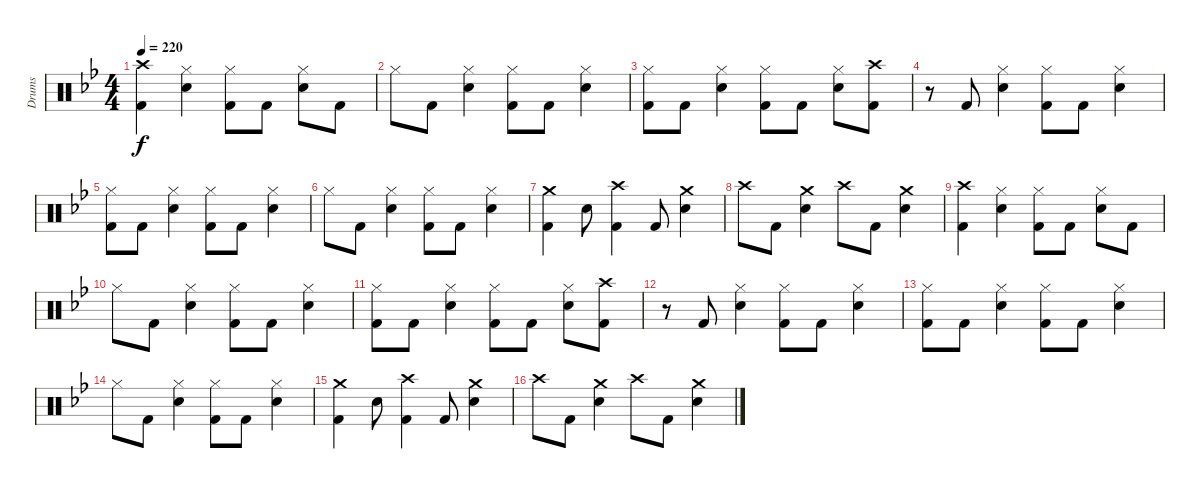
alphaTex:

\track ("Drums" "Drums") {instrument percussion}
\staff {score}
\articulation defaults
\ts (4 4)
\tempo 220
\clef neutral
\ks gminor
("Kick (hit) 2" "Crash high (hit)").4{dy f} ("Snare (hit) 2" "Hi-Hat (closed)").4 ("Kick (hit) 2" "Hi-Hat (closed)").8 "Kick (hit) 2".8 ("Snare (hit) 2" "Hi-Hat (closed)").8 "Kick (hit) 2".8 |
"Hi-Hat (closed)".8 "Kick (hit) 2".8 ("Snare (hit) 2" "Hi-Hat (closed)").4 ("Kick (hit) 2" "Hi-Hat (closed)").8 "Kick (hit) 2".8 ("Snare (hit) 2" "Hi-Hat (closed)").4 |
("Kick (hit) 2" "Hi-Hat (closed)").8 "Kick (hit) 2".8 ("Snare (hit) 2" "Hi-Hat (closed)").4 ("Kick (hit) 2" "Hi-Hat (closed)").8 "Kick (hit) 2".8 ("Snare (hit) 2" "Hi-Hat (closed)").8 ("Kick (hit) 2" "Crash high (hit)").8 |
r.8 "Kick (hit) 2".8 ("Snare (hit) 2" "Hi-Hat (closed)").4 ("Kick (hit) 2" "Hi-Hat (closed)").8 "Kick (hit) 2".8 ("Snare (hit) 2" "Hi-Hat (closed)").4 |
("Kick (hit) 2" "Hi-Hat (closed)").8 "Kick (hit) 2".8 ("Snare (hit) 2" "Hi-Hat (closed)").4 ("Kick (hit) 2" "Hi-Hat (closed)").8 "Kick (hit) 2".8 ("Snare (hit) 2" "Hi-Hat (closed)").4 |
"Hi-Hat (closed)".8 "Kick (hit) 2".8 ("Snare (hit) 2" "Hi-Hat (closed)").4 ("Kick (hit) 2" "Hi-Hat (closed)").8 "Kick (hit) 2".8 ("Snare (hit) 2" "Hi-Hat (closed)").4 |
("Kick (hit) 2" "Crash medium (hit)").4 "Snare (hit) 2".8 ("Kick (hit) 2" "Crash high (hit)").4 "Kick (hit) 2".8 ("Snare (hit) 2" "Crash medium (hit)").4 |
"Crash high (hit)".8 "Kick (hit) 2".8 ("Snare (hit) 2" "Crash medium (hit)").4 "Crash high (hit)".8 "Kick (hit) 2".8 ("Snare (hit) 2" "Crash medium (hit)").4 |
("Kick (hit) 2" "Crash high (hit)").4 ("Snare (hit) 2" "Hi-Hat (closed)").4 ("Kick (hit) 2" "Hi-Hat (closed)").8 "Kick (hit) 2".8 ("Snare (hit) 2" "Hi-Hat (closed)").8 "Kick (hit) 2".8 |
"Hi-Hat (closed)".8 "Kick (hit) 2".8 ("Snare (hit) 2" "Hi-Hat (closed)").4 ("Kick (hit) 2" "Hi-Hat (closed)").8 "Kick (hit) 2".8 ("Snare (hit) 2" "Hi-Hat (closed)").4 |
("Kick (hit) 2" "Hi-Hat (closed)").8 "Kick (hit) 2".8 ("Snare (hit) 2" "Hi-Hat (closed)").4 ("Kick (hit) 2" "Hi-Hat (closed)").8 "Kick (hit) 2".8 ("Snare (hit) 2" "Hi-Hat (closed)").8 ("Kick (hit) 2" "Crash high (hit)").8 |
r.8 "Kick (hit) 2".8 ("Snare (hit) 2" "Hi-Hat (closed)").4 ("Kick (hit) 2" "Hi-Hat (closed)").8 "Kick (hit) 2".8 ("Snare (hit) 2" "Hi-Hat (closed)").4 |
("Kick (hit) 2" "Hi-Hat (closed)").8 "Kick (hit) 2".8 ("Snare (hit) 2" "Hi-Hat (closed)").4 ("Kick (hit) 2" "Hi-Hat (closed)").8 "Kick (hit) 2".8 ("Snare (hit) 2" "Hi-Hat (closed)").4 |
"Hi-Hat (closed)".8 "Kick (hit) 2".8 ("Snare (hit) 2" "Hi-Hat (closed)").4 ("Kick (hit) 2" "Hi-Hat (closed)").8 "Kick (hit) 2".8 ("Snare (hit) 2" "Hi-Hat (closed)").4 |
("Kick (hit) 2" "Crash medium (hit)").4 "Snare (hit) 2".8 ("Kick (hit) 2" "Crash high (hit)").4 "Kick (hit) 2".8 ("Snare (hit) 2" "Crash medium (hit)").4 |
"Crash high (hit)".8 "Kick (hit) 2".8 ("Snare (hit) 2" "Crash medium (hit)").4 "Crash high (hit)".8 "Kick (hit) 2".8 ("Snare (hit) 2" "Crash medium (hit)").4
